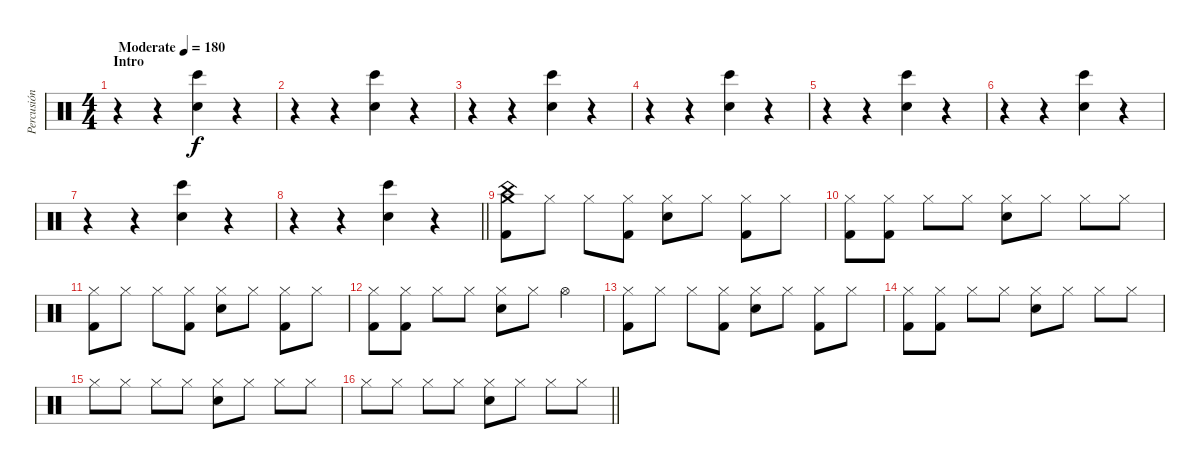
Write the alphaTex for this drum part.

\track ("Percusión" "Percusión") {instrument percussion}
\staff {score}
\articulation defaults
\ts (4 4)
\section ("" "Intro")
\tempo (180 "Moderate")
\clef neutral
\ks c
r.4{dy f} r.4 ("Bongo High (hit)" "Snare (hit) 2").4 r.4 |
r.4 r.4 ("Bongo High (hit)" "Snare (hit) 2").4 r.4 |
r.4 r.4 ("Bongo High (hit)" "Snare (hit) 2").4 r.4 |
r.4 r.4 ("Bongo High (hit)" "Snare (hit) 2").4 r.4 |
r.4 r.4 ("Bongo High (hit)" "Snare (hit) 2").4 r.4 |
r.4 r.4 ("Bongo High (hit)" "Snare (hit) 2").4 r.4 |
r.4 r.4 ("Bongo High (hit)" "Snare (hit) 2").4 r.4 |
\barLineRight lightlight
r.4 r.4 ("Bongo High (hit)" "Snare (hit) 2").4 r.4 |
("Crash medium (hit)" "China (hit)" "Kick (hit) 2").8{volume 16} "Hi-Hat (closed)".8 "Hi-Hat (closed)".8 ("Hi-Hat (closed)" "Kick (hit) 2").8 ("Hi-Hat (closed)" "Snare (hit) 2").8 "Hi-Hat (closed)".8 ("Hi-Hat (closed)" "Kick (hit) 2").8 "Hi-Hat (closed)".8 |
("Hi-Hat (closed)" "Kick (hit) 2").8 ("Hi-Hat (closed)" "Kick (hit) 2").8 "Hi-Hat (closed)".8 "Hi-Hat (closed)".8 ("Hi-Hat (closed)" "Snare (hit) 2").8 "Hi-Hat (closed)".8 "Hi-Hat (closed)".8 "Hi-Hat (closed)".8 |
("Hi-Hat (closed)" "Kick (hit) 2").8 "Hi-Hat (closed)".8 "Hi-Hat (closed)".8 ("Hi-Hat (closed)" "Kick (hit) 2").8 ("Hi-Hat (closed)" "Snare (hit) 2").8 "Hi-Hat (closed)".8 ("Hi-Hat (closed)" "Kick (hit) 2").8 "Hi-Hat (closed)".8 |
("Hi-Hat (closed)" "Kick (hit) 2").8 ("Hi-Hat (closed)" "Kick (hit) 2").8 "Hi-Hat (closed)".8 "Hi-Hat (closed)".8 ("Hi-Hat (closed)" "Snare (hit) 2").8 "Hi-Hat (closed)".8 "Hi-Hat (open)".4 |
("Hi-Hat (closed)" "Kick (hit) 2").8 "Hi-Hat (closed)".8 "Hi-Hat (closed)".8 ("Hi-Hat (closed)" "Kick (hit) 2").8 ("Hi-Hat (closed)" "Snare (hit) 2").8 "Hi-Hat (closed)".8 ("Hi-Hat (closed)" "Kick (hit) 2").8 "Hi-Hat (closed)".8 |
("Hi-Hat (closed)" "Kick (hit) 2").8 ("Hi-Hat (closed)" "Kick (hit) 2").8 "Hi-Hat (closed)".8 "Hi-Hat (closed)".8 ("Hi-Hat (closed)" "Snare (hit) 2").8 "Hi-Hat (closed)".8 "Hi-Hat (closed)".8 "Hi-Hat (closed)".8 |
"Hi-Hat (closed)".8 "Hi-Hat (closed)".8 "Hi-Hat (closed)".8 "Hi-Hat (closed)".8 ("Hi-Hat (closed)" "Snare (hit) 2").8 "Hi-Hat (closed)".8 "Hi-Hat (closed)".8 "Hi-Hat (closed)".8 |
\barLineRight lightlight "Hi-Hat (closed)".8 "Hi-Hat (closed)".8 "Hi-Hat (closed)".8 "Hi-Hat (closed)".8
("Hi-Hat (closed)" "Snare (hit) 2").8 "Hi-Hat (closed)".8 "Hi-Hat (closed)".8 "Hi-Hat (closed)".8
